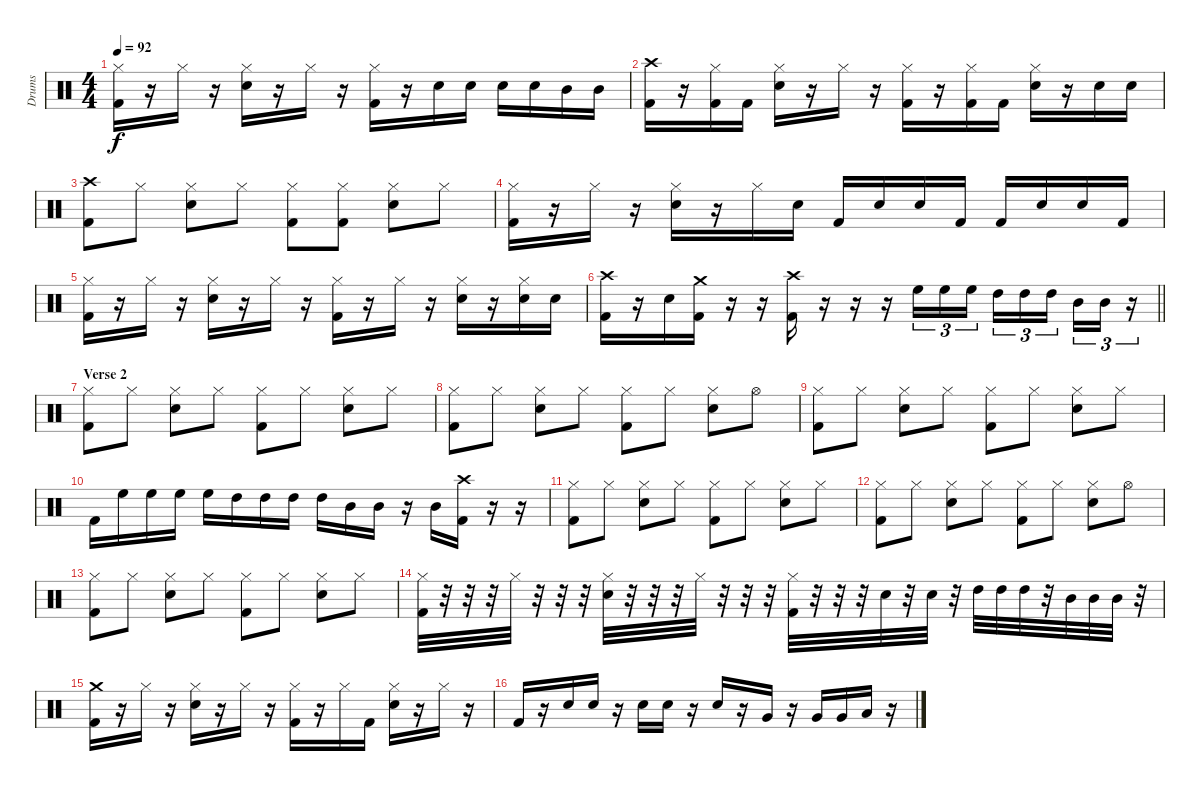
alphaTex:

\track ("Drums" "Drums") {instrument percussion}
\staff {score}
\articulation defaults
\ts (4 4)
\tempo 92
\clef neutral
\ks c
("Hi-Hat (closed)" "Kick (hit) 2").16{dy f} r.16 "Hi-Hat (closed)".16 r.16 ("Hi-Hat (closed)" "Snare (hit) 2").16 r.16 "Hi-Hat (closed)".16 r.16 ("Hi-Hat (closed)" "Kick (hit) 2").16 r.16 "Snare (hit) 2".16 "Snare (hit) 2".16 "Snare (hit) 2".16 "Snare (hit) 2".16 "Mid Tom (hit)".16 "Mid Tom (hit)".16 |
("Crash high (hit)" "Kick (hit) 2").16 r.16 ("Hi-Hat (closed)" "Kick (hit) 2").16 "Kick (hit) 2".16 ("Hi-Hat (closed)" "Snare (hit) 2").16 r.16 "Hi-Hat (closed)".16 r.16 ("Hi-Hat (closed)" "Kick (hit) 2").16 r.16 ("Hi-Hat (closed)" "Kick (hit) 2").16 "Kick (hit) 2".16 ("Hi-Hat (closed)" "Snare (hit) 2").16 r.16 "Snare (hit) 2".16 "Snare (hit) 2".16 |
("Crash high (hit)" "Kick (hit) 2").8 "Hi-Hat (closed)".8 ("Hi-Hat (closed)" "Snare (hit) 2").8 "Hi-Hat (closed)".8 ("Hi-Hat (closed)" "Kick (hit) 2").8 ("Hi-Hat (closed)" "Kick (hit) 2").8 ("Hi-Hat (closed)" "Snare (hit) 2").8 "Hi-Hat (closed)".8 |
("Hi-Hat (closed)" "Kick (hit) 2").16 r.16 "Hi-Hat (closed)".16 r.16 ("Hi-Hat (closed)" "Snare (hit) 2").16 r.16 "Hi-Hat (closed)".16 "Snare (hit) 2".16 "Kick (hit) 2".16 "Snare (hit) 2".16 "Snare (hit) 2".16 "Kick (hit) 2".16 "Kick (hit) 2".16 "Snare (hit) 2".16 "Snare (hit) 2".16 "Kick (hit) 2".16 |
("Hi-Hat (closed)" "Kick (hit) 2").16 r.16 "Hi-Hat (closed)".16 r.16 ("Hi-Hat (closed)" "Snare (hit) 2").16 r.16 "Hi-Hat (closed)".16 r.16 ("Hi-Hat (closed)" "Kick (hit) 2").16 r.16 "Hi-Hat (closed)".16 r.16 ("Hi-Hat (closed)" "Snare (hit) 2").16 r.16 ("Hi-Hat (closed)" "Snare (hit) 2").16 "Snare (hit) 2".16 |
\barLineRight lightlight
("Crash high (hit)" "Kick (hit) 2").16 r.16 "Snare (hit) 2".16 ("Crash medium (hit)" "Kick (hit) 2").16 r.16 r.16 ("Crash high (hit)" "Kick (hit) 2").16 r.16 r.16 r.16 "High Floor Tom (hit)".16{tu (3 2)} "High Floor Tom (hit)".16{tu (3 2)} "High Floor Tom (hit)".16{tu (3 2)} "High Tom (hit)".16{tu (3 2)} "High Tom (hit)".16{tu (3 2)} "High Tom (hit)".16{tu (3 2) beam splitsecondary} "Mid Tom (hit)".16{tu (3 2)} "Mid Tom (hit)".16{tu (3 2)} r.16{tu (3 2)} |
\section ("" "Verse 2")
("Hi-Hat (closed)" "Kick (hit) 2").8 "Hi-Hat (closed)".8 ("Hi-Hat (closed)" "Snare (hit) 2").8 "Hi-Hat (closed)".8 ("Hi-Hat (closed)" "Kick (hit) 2").8 "Hi-Hat (closed)".8 ("Hi-Hat (closed)" "Snare (hit) 2").8 "Hi-Hat (closed)".8 |
("Hi-Hat (closed)" "Kick (hit) 2").8 "Hi-Hat (closed)".8 ("Hi-Hat (closed)" "Snare (hit) 2").8 "Hi-Hat (closed)".8 ("Hi-Hat (closed)" "Kick (hit) 2").8 "Hi-Hat (closed)".8 ("Hi-Hat (closed)" "Snare (hit) 2").8 "Hi-Hat (open)".8 |
("Hi-Hat (closed)" "Kick (hit) 2").8 "Hi-Hat (closed)".8 ("Hi-Hat (closed)" "Snare (hit) 2").8 "Hi-Hat (closed)".8 ("Hi-Hat (closed)" "Kick (hit) 2").8 "Hi-Hat (closed)".8 ("Hi-Hat (closed)" "Snare (hit) 2").8 "Hi-Hat (closed)".8 |
"Kick (hit) 2".16 "High Floor Tom (hit)".16 "High Floor Tom (hit)".16 "High Floor Tom (hit)".16 "High Floor Tom (hit)".16 "High Tom (hit)".16 "High Tom (hit)".16 "High Tom (hit)".16 "High Tom (hit)".16 "Mid Tom (hit)".16 "Mid Tom (hit)".16 r.16 "Mid Tom (hit)".16 ("Crash high (hit)" "Kick (hit) 2").16 r.16 r.16 |
("Hi-Hat (closed)" "Kick (hit) 2").8 "Hi-Hat (closed)".8 ("Hi-Hat (closed)" "Snare (hit) 2").8 "Hi-Hat (closed)".8 ("Hi-Hat (closed)" "Kick (hit) 2").8 "Hi-Hat (closed)".8 ("Hi-Hat (closed)" "Snare (hit) 2").8 "Hi-Hat (closed)".8 |
("Hi-Hat (closed)" "Kick (hit) 2").8 "Hi-Hat (closed)".8 ("Hi-Hat (closed)" "Snare (hit) 2").8 "Hi-Hat (closed)".8 ("Hi-Hat (closed)" "Kick (hit) 2").8 "Hi-Hat (closed)".8 ("Hi-Hat (closed)" "Snare (hit) 2").8 "Hi-Hat (open)".8 |
("Hi-Hat (closed)" "Kick (hit) 2").8 "Hi-Hat (closed)".8 ("Hi-Hat (closed)" "Snare (hit) 2").8 "Hi-Hat (closed)".8 ("Hi-Hat (closed)" "Kick (hit) 2").8 "Hi-Hat (closed)".8 ("Hi-Hat (closed)" "Snare (hit) 2").8 "Hi-Hat (closed)".8 |
("Hi-Hat (closed)" "Kick (hit) 2").32 r.32 r.32 r.32 "Hi-Hat (closed)".32 r.32 r.32 r.32 ("Hi-Hat (closed)" "Snare (hit) 2").32 r.32 r.32 r.32 "Hi-Hat (closed)".32 r.32 r.32 r.32 ("Hi-Hat (closed)" "Kick (hit) 2").32 r.32 r.32 r.32 "Snare (hit) 2".32 r.32 "Snare (hit) 2".32 r.32 "High Tom (hit)".32 "High Tom (hit)".32 "High Tom (hit)".32 r.32 "Mid Tom (hit)".32 "Mid Tom (hit)".32 "Mid Tom (hit)".32 r.32 |
("Crash medium (hit)" "Kick (hit) 2").16 r.16 "Hi-Hat (closed)".16 r.16 ("Hi-Hat (closed)" "Snare (hit) 2").16 r.16 "Hi-Hat (closed)".16 r.16 ("Hi-Hat (closed)" "Kick (hit) 2").16 r.16 "Hi-Hat (closed)".16 "Kick (hit) 2".16 ("Hi-Hat (closed)" "Snare (hit) 2").16 r.16 "Hi-Hat (closed)".16 r.16 |
"Kick (hit) 2".16 r.16 "Snare (hit) 2".16 "Snare (hit) 2".16 r.16 "Snare (hit) 2".16 "Snare (hit) 2".16 r.16 "Snare (hit) 2".16 r.16 "Very Low Tom (hit)".16 r.16 "Very Low Tom (hit)".16 "Very Low Tom (hit)".16 "Low Floor Tom (hit)".16 r.16
